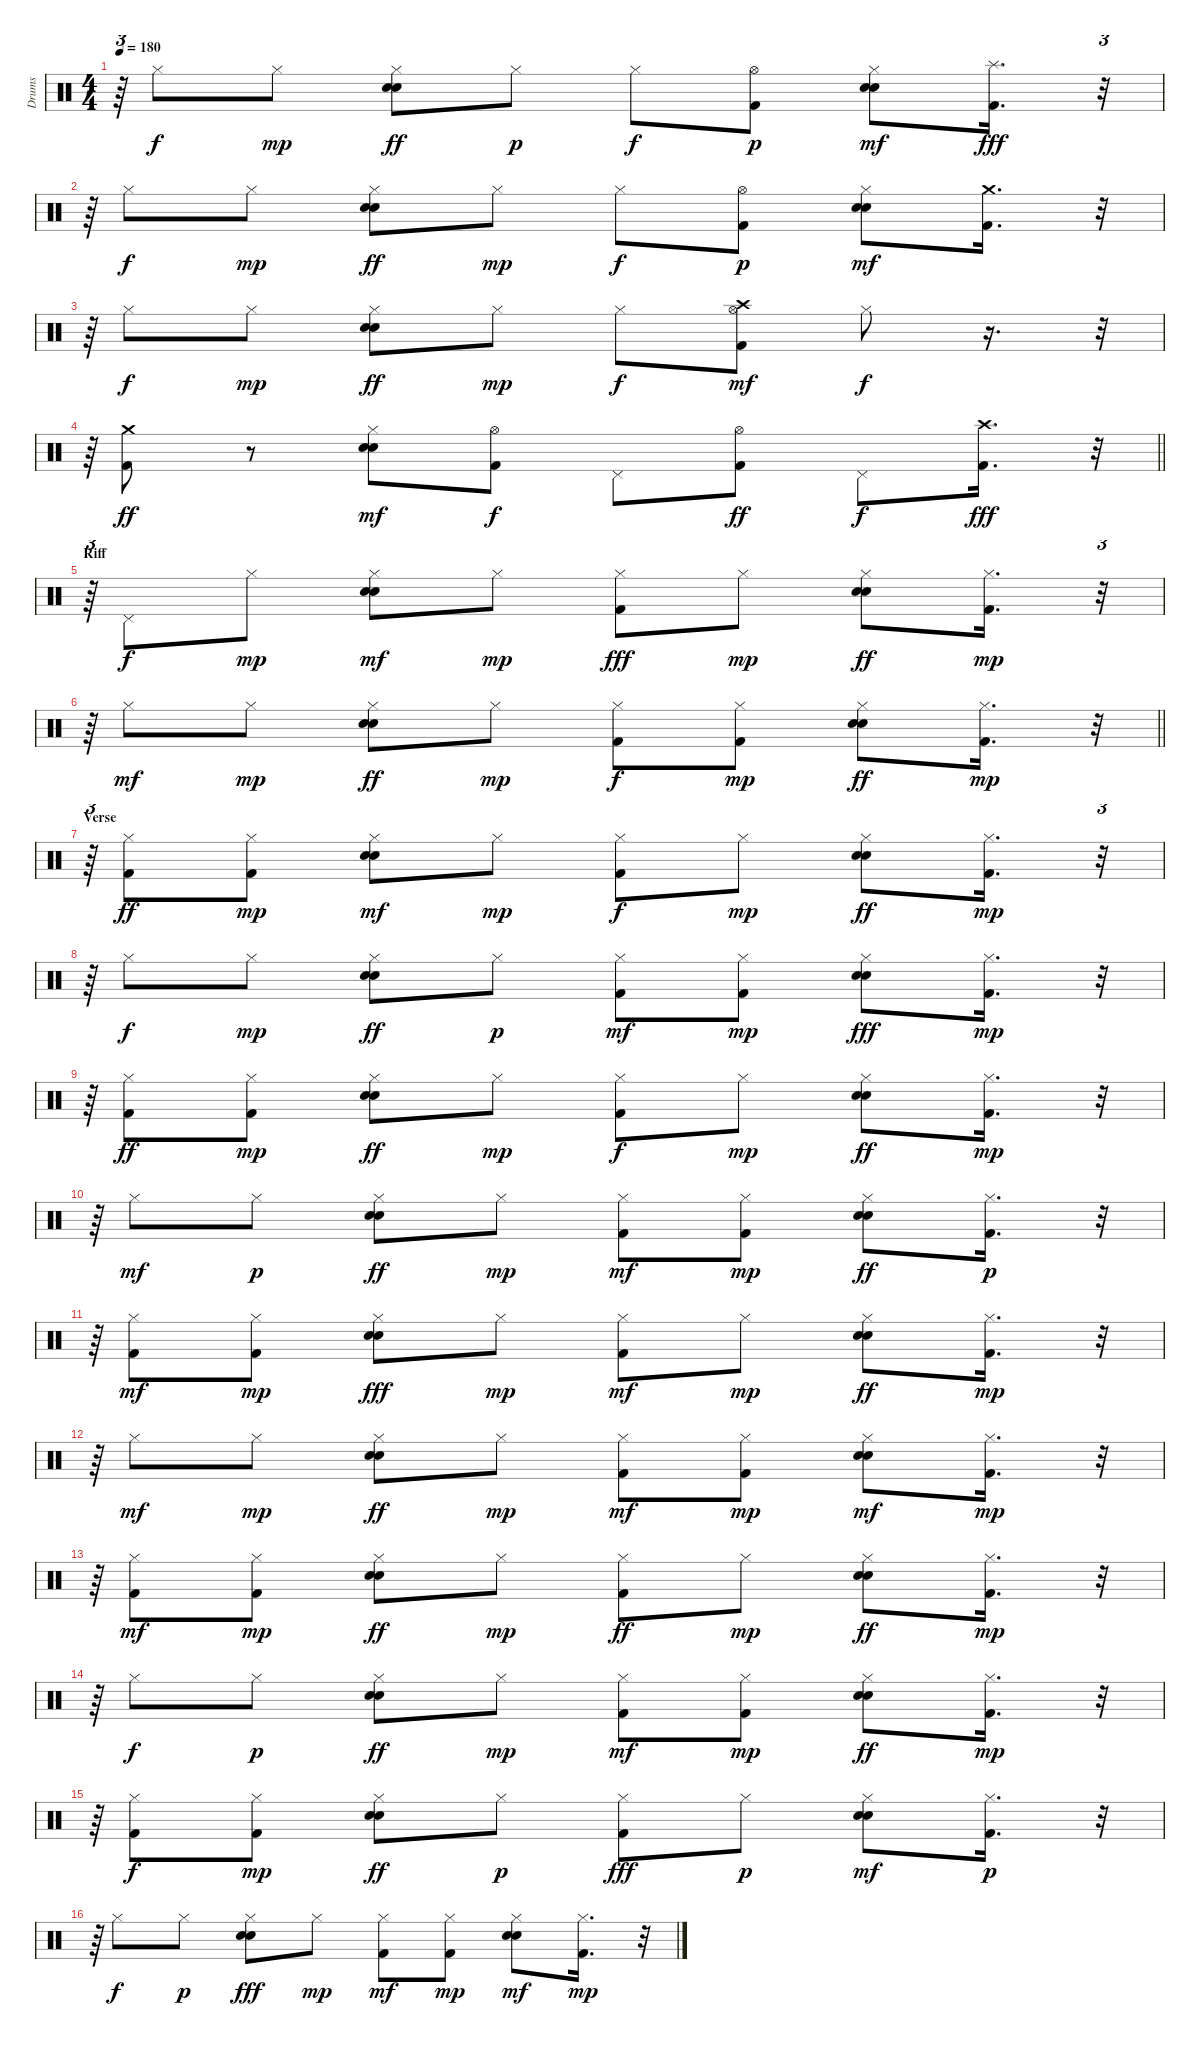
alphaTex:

\track ("Drums" "Drums") {instrument percussion}
\staff {score}
\articulation defaults
\ts (4 4)
\tempo 180
\clef neutral
\ks c
r.64{tu (3 2) dy mf} "Hi-Hat (closed)".8{dy f} "Hi-Hat (closed)".8{dy mp} ("Electric Snare (hit)" "Snare (hit) 2" "Hi-Hat (closed)").8{dy ff} "Hi-Hat (closed)".8{dy p} "Hi-Hat (closed)".8{dy f} ("Kick (hit) 2" "Hi-Hat (open)").8{dy p} ("Electric Snare (hit)" "Snare (hit) 2" "Hi-Hat (closed)").8{dy mf} ("Kick (hit) 2" "Splash (hit)").16{d dy fff} r.32{tu (3 2)} |
r.64{tu (3 2)} "Hi-Hat (closed)".8{dy f} "Hi-Hat (closed)".8{dy mp} ("Electric Snare (hit)" "Snare (hit) 2" "Hi-Hat (closed)").8{dy ff} "Hi-Hat (closed)".8{dy mp} "Hi-Hat (closed)".8{dy f} ("Kick (hit) 2" "Hi-Hat (open)").8{dy p} ("Electric Snare (hit)" "Snare (hit) 2" "Hi-Hat (closed)").8{dy mf} ("Kick (hit) 2" "Crash medium (hit)").16{d} r.32{tu (3 2)} |
r.64{tu (3 2)} "Hi-Hat (closed)".8{dy f} "Hi-Hat (closed)".8{dy mp} ("Electric Snare (hit)" "Snare (hit) 2" "Hi-Hat (closed)").8{dy ff} "Hi-Hat (closed)".8{dy mp} "Hi-Hat (closed)".8{dy f} ("Kick (hit) 2" "Hi-Hat (open)" "Crash high (hit)").8{dy mf} "Hi-Hat (closed)".8{dy f} r.16{d} r.32{tu (3 2)} |
\barLineRight lightlight
r.64{tu (3 2)} ("Kick (hit) 2" "Crash medium (hit)").8{dy ff} r.8 ("Electric Snare (hit)" "Snare (hit) 2" "Hi-Hat (closed)").8{dy mf} ("Kick (hit) 2" "Hi-Hat (open)").8{dy f} "Pedal Hi-Hat (hit)".8 ("Kick (hit) 2" "Hi-Hat (open)").8{dy ff} "Pedal Hi-Hat (hit)".8{dy f} ("Kick (hit) 2" "Crash high (hit)").16{d dy fff} r.32{tu (3 2)} |
\section ("" "Riff")
r.64{tu (3 2)} "Pedal Hi-Hat (hit)".8{dy f} "Hi-Hat (closed)".8{dy mp} ("Electric Snare (hit)" "Snare (hit) 2" "Hi-Hat (closed)").8{dy mf} "Hi-Hat (closed)".8{dy mp} ("Kick (hit) 2" "Hi-Hat (closed)").8{dy fff} "Hi-Hat (closed)".8{dy mp} ("Electric Snare (hit)" "Snare (hit) 2" "Hi-Hat (closed)").8{dy ff} ("Kick (hit) 2" "Hi-Hat (closed)").16{d dy mp} r.32{tu (3 2)} |
\barLineRight lightlight
r.64{tu (3 2)} "Hi-Hat (closed)".8{dy mf} "Hi-Hat (closed)".8{dy mp} ("Electric Snare (hit)" "Snare (hit) 2" "Hi-Hat (closed)").8{dy ff} "Hi-Hat (closed)".8{dy mp} ("Kick (hit) 2" "Hi-Hat (closed)").8{dy f} ("Kick (hit) 2" "Hi-Hat (closed)").8{dy mp} ("Electric Snare (hit)" "Snare (hit) 2" "Hi-Hat (closed)").8{dy ff} ("Kick (hit) 2" "Hi-Hat (closed)").16{d dy mp} r.32{tu (3 2)} |
\section ("" "Verse")
r.64{tu (3 2)} ("Kick (hit) 2" "Hi-Hat (closed)").8{dy ff} ("Kick (hit) 2" "Hi-Hat (closed)").8{dy mp} ("Electric Snare (hit)" "Snare (hit) 2" "Hi-Hat (closed)").8{dy mf} "Hi-Hat (closed)".8{dy mp} ("Kick (hit) 2" "Hi-Hat (closed)").8{dy f} "Hi-Hat (closed)".8{dy mp} ("Electric Snare (hit)" "Snare (hit) 2" "Hi-Hat (closed)").8{dy ff} ("Kick (hit) 2" "Hi-Hat (closed)").16{d dy mp} r.32{tu (3 2)} |
r.64{tu (3 2)} "Hi-Hat (closed)".8{dy f} "Hi-Hat (closed)".8{dy mp} ("Electric Snare (hit)" "Snare (hit) 2" "Hi-Hat (closed)").8{dy ff} "Hi-Hat (closed)".8{dy p} ("Kick (hit) 2" "Hi-Hat (closed)").8{dy mf} ("Kick (hit) 2" "Hi-Hat (closed)").8{dy mp} ("Electric Snare (hit)" "Snare (hit) 2" "Hi-Hat (closed)").8{dy fff} ("Kick (hit) 2" "Hi-Hat (closed)").16{d dy mp} r.32{tu (3 2)} |
r.64{tu (3 2)} ("Kick (hit) 2" "Hi-Hat (closed)").8{dy ff} ("Kick (hit) 2" "Hi-Hat (closed)").8{dy mp} ("Electric Snare (hit)" "Snare (hit) 2" "Hi-Hat (closed)").8{dy ff} "Hi-Hat (closed)".8{dy mp} ("Kick (hit) 2" "Hi-Hat (closed)").8{dy f} "Hi-Hat (closed)".8{dy mp} ("Electric Snare (hit)" "Snare (hit) 2" "Hi-Hat (closed)").8{dy ff} ("Kick (hit) 2" "Hi-Hat (closed)").16{d dy mp} r.32{tu (3 2)} |
r.64{tu (3 2)} "Hi-Hat (closed)".8{dy mf} "Hi-Hat (closed)".8{dy p} ("Electric Snare (hit)" "Snare (hit) 2" "Hi-Hat (closed)").8{dy ff} "Hi-Hat (closed)".8{dy mp} ("Kick (hit) 2" "Hi-Hat (closed)").8{dy mf} ("Kick (hit) 2" "Hi-Hat (closed)").8{dy mp} ("Electric Snare (hit)" "Snare (hit) 2" "Hi-Hat (closed)").8{dy ff} ("Kick (hit) 2" "Hi-Hat (closed)").16{d dy p} r.32{tu (3 2)} |
r.64{tu (3 2)} ("Kick (hit) 2" "Hi-Hat (closed)").8{dy mf} ("Kick (hit) 2" "Hi-Hat (closed)").8{dy mp} ("Electric Snare (hit)" "Snare (hit) 2" "Hi-Hat (closed)").8{dy fff} "Hi-Hat (closed)".8{dy mp} ("Kick (hit) 2" "Hi-Hat (closed)").8{dy mf} "Hi-Hat (closed)".8{dy mp} ("Electric Snare (hit)" "Snare (hit) 2" "Hi-Hat (closed)").8{dy ff} ("Kick (hit) 2" "Hi-Hat (closed)").16{d dy mp} r.32{tu (3 2)} |
r.64{tu (3 2)} "Hi-Hat (closed)".8{dy mf} "Hi-Hat (closed)".8{dy mp} ("Electric Snare (hit)" "Snare (hit) 2" "Hi-Hat (closed)").8{dy ff} "Hi-Hat (closed)".8{dy mp} ("Kick (hit) 2" "Hi-Hat (closed)").8{dy mf} ("Kick (hit) 2" "Hi-Hat (closed)").8{dy mp} ("Electric Snare (hit)" "Snare (hit) 2" "Hi-Hat (closed)").8{dy mf} ("Kick (hit) 2" "Hi-Hat (closed)").16{d dy mp} r.32{tu (3 2)} |
r.64{tu (3 2)} ("Kick (hit) 2" "Hi-Hat (closed)").8{dy mf} ("Kick (hit) 2" "Hi-Hat (closed)").8{dy mp} ("Electric Snare (hit)" "Snare (hit) 2" "Hi-Hat (closed)").8{dy ff} "Hi-Hat (closed)".8{dy mp} ("Kick (hit) 2" "Hi-Hat (closed)").8{dy ff} "Hi-Hat (closed)".8{dy mp} ("Electric Snare (hit)" "Snare (hit) 2" "Hi-Hat (closed)").8{dy ff} ("Kick (hit) 2" "Hi-Hat (closed)").16{d dy mp} r.32{tu (3 2)} |
r.64{tu (3 2)} "Hi-Hat (closed)".8{dy f} "Hi-Hat (closed)".8{dy p} ("Electric Snare (hit)" "Snare (hit) 2" "Hi-Hat (closed)").8{dy ff} "Hi-Hat (closed)".8{dy mp} ("Kick (hit) 2" "Hi-Hat (closed)").8{dy mf} ("Kick (hit) 2" "Hi-Hat (closed)").8{dy mp} ("Electric Snare (hit)" "Snare (hit) 2" "Hi-Hat (closed)").8{dy ff} ("Kick (hit) 2" "Hi-Hat (closed)").16{d dy mp} r.32{tu (3 2)} |
r.64{tu (3 2)} ("Kick (hit) 2" "Hi-Hat (closed)").8{dy f} ("Kick (hit) 2" "Hi-Hat (closed)").8{dy mp} ("Electric Snare (hit)" "Snare (hit) 2" "Hi-Hat (closed)").8{dy ff} "Hi-Hat (closed)".8{dy p} ("Kick (hit) 2" "Hi-Hat (closed)").8{dy fff} "Hi-Hat (closed)".8{dy p} ("Electric Snare (hit)" "Snare (hit) 2" "Hi-Hat (closed)").8{dy mf} ("Kick (hit) 2" "Hi-Hat (closed)").16{d dy p} r.32{tu (3 2)} |
r.64{tu (3 2)} "Hi-Hat (closed)".8{dy f} "Hi-Hat (closed)".8{dy p} ("Electric Snare (hit)" "Snare (hit) 2" "Hi-Hat (closed)").8{dy fff} "Hi-Hat (closed)".8{dy mp} ("Kick (hit) 2" "Hi-Hat (closed)").8{dy mf} ("Kick (hit) 2" "Hi-Hat (closed)").8{dy mp} ("Electric Snare (hit)" "Snare (hit) 2" "Hi-Hat (closed)").8{dy mf} ("Kick (hit) 2" "Hi-Hat (closed)").16{d dy mp} r.32{tu (3 2)}
